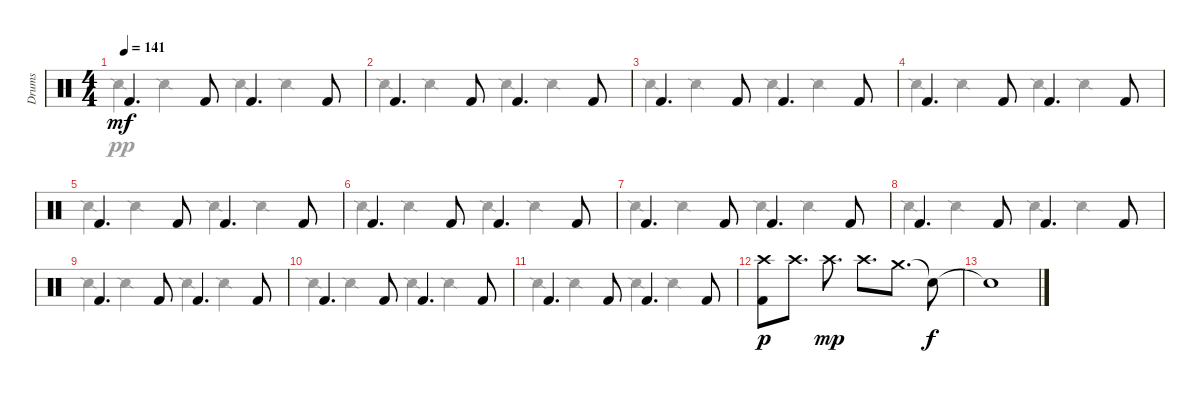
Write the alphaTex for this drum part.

\track ("Drums" "Drums") {instrument percussion}
\staff {score}
\articulation defaults
\voice
\ts (4 4)
\tempo 141
\clef neutral
\ks c "Kick (hit) 2".4{d dy mf} "Kick (hit) 2".8 "Kick (hit) 2".4{d} "Kick (hit) 2".8
|
"Kick (hit) 2".4{d} "Kick (hit) 2".8 "Kick (hit) 2".4{d} "Kick (hit) 2".8 |
"Kick (hit) 2".4{d} "Kick (hit) 2".8 "Kick (hit) 2".4{d} "Kick (hit) 2".8 |
"Kick (hit) 2".4{d} "Kick (hit) 2".8 "Kick (hit) 2".4{d} "Kick (hit) 2".8 |
"Kick (hit) 2".4{d} "Kick (hit) 2".8 "Kick (hit) 2".4{d} "Kick (hit) 2".8 |
"Kick (hit) 2".4{d} "Kick (hit) 2".8 "Kick (hit) 2".4{d} "Kick (hit) 2".8 |
"Kick (hit) 2".4{d} "Kick (hit) 2".8 "Kick (hit) 2".4{d} "Kick (hit) 2".8 |
"Kick (hit) 2".4{d} "Kick (hit) 2".8 "Kick (hit) 2".4{d} "Kick (hit) 2".8 |
"Kick (hit) 2".4{d} "Kick (hit) 2".8 "Kick (hit) 2".4{d} "Kick (hit) 2".8 |
"Kick (hit) 2".4{d} "Kick (hit) 2".8 "Kick (hit) 2".4{d} "Kick (hit) 2".8 |
"Kick (hit) 2".4{d} "Kick (hit) 2".8 "Kick (hit) 2".4{d} "Kick (hit) 2".8 |
("Kick (hit) 2" "Crash high (hit)").8{dy p} "Crash high (hit)".8{d} "Crash high (hit)".8{d dy mp} "Crash high (hit)".8{d} "Crash medium (hit)".8{d} "Snare (hit)"{t}.8{dy f} |
"Snare (hit)"{t}.1
\voice
\clef neutral
\ottava regular
\simile none
\ks c "Snare (side stick) 2".4{dy pp} "Snare (side stick) 2".4 "Snare (side stick) 2".4 "Snare (side stick) 2".4
|
"Snare (side stick) 2".4 "Snare (side stick) 2".4 "Snare (side stick) 2".4 "Snare (side stick) 2".4 |
"Snare (side stick) 2".4 "Snare (side stick) 2".4 "Snare (side stick) 2".4 "Snare (side stick) 2".4 |
"Snare (side stick) 2".4 "Snare (side stick) 2".4 "Snare (side stick) 2".4 "Snare (side stick) 2".4 |
"Snare (side stick) 2".4 "Snare (side stick) 2".4 "Snare (side stick) 2".4 "Snare (side stick) 2".4 |
"Snare (side stick) 2".4 "Snare (side stick) 2".4 "Snare (side stick) 2".4 "Snare (side stick) 2".4 |
"Snare (side stick) 2".4 "Snare (side stick) 2".4 "Snare (side stick) 2".4 "Snare (side stick) 2".4 |
"Snare (side stick) 2".4 "Snare (side stick) 2".4 "Snare (side stick) 2".4 "Snare (side stick) 2".4 |
"Snare (side stick) 2".4 "Snare (side stick) 2".4 "Snare (side stick) 2".4 "Snare (side stick) 2".4 |
"Snare (side stick) 2".4 "Snare (side stick) 2".4 "Snare (side stick) 2".4 "Snare (side stick) 2".4 |
"Snare (side stick) 2".4 "Snare (side stick) 2".4 "Snare (side stick) 2".4 "Snare (side stick) 2".4 |
|
